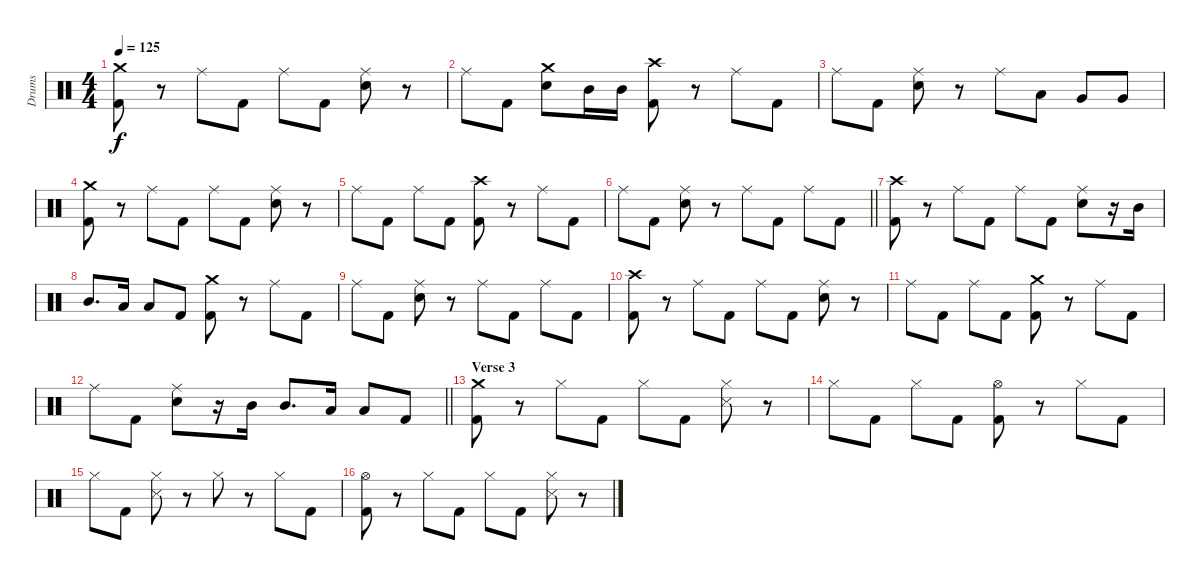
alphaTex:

\track ("Drums" "Drums") {instrument percussion}
\staff {score}
\articulation defaults
\ts (4 4)
\tempo 125
\clef neutral
\ks c
("Crash medium (hit)" "Kick (hit) 2").8{dy f volume 16} r.8 "Ride (middle)".8 "Kick (hit) 2".8 "Ride (middle)".8 "Kick (hit) 2".8 ("Ride (middle)" "Electric Snare (hit)").8 r.8 |
"Ride (middle)".8 "Kick (hit) 2".8 ("Crash medium (hit)" "Electric Snare (hit)").8 "Mid Tom (hit)".16 "Mid Tom (hit)".16 ("Crash high (hit)" "Kick (hit) 2").8 r.8 "Ride (middle)".8 "Kick (hit) 2".8 |
"Ride (middle)".8 "Kick (hit) 2".8 ("Ride (middle)" "Electric Snare (hit)").8 r.8 "Ride (middle)".8 "Low Tom (hit)".8 "Very Low Tom (hit)".8 "Very Low Tom (hit)".8 |
("Crash medium (hit)" "Kick (hit) 2").8{volume 16} r.8 "Ride (middle)".8 "Kick (hit) 2".8 "Ride (middle)".8 "Kick (hit) 2".8 ("Ride (middle)" "Electric Snare (hit)").8 r.8 |
"Ride (middle)".8 "Kick (hit) 2".8 "Ride (middle)".8 "Kick (hit) 2".8 ("Crash high (hit)" "Kick (hit) 2").8 r.8 "Ride (middle)".8 "Kick (hit) 2".8 |
\barLineRight lightlight "Ride (middle)".8 "Kick (hit) 2".8
("Ride (middle)" "Electric Snare (hit)").8 r.8 "Ride (middle)".8 "Kick (hit) 2".8 "Ride (middle)".8 "Kick (hit) 2".8 |
("Crash high (hit)" "Kick (hit) 2").8{volume 16} r.8 "Ride (middle)".8 "Kick (hit) 2".8 "Ride (middle)".8 "Kick (hit) 2".8 ("Ride (middle)" "Electric Snare (hit)").8 r.16 "Mid Tom (hit)".16 |
"Mid Tom (hit)".8{d} "Low Tom (hit)".16 "Low Tom (hit)".8 "Kick (hit) 2".8 ("Crash medium (hit)" "Kick (hit) 2").8 r.8 "Ride (middle)".8 "Kick (hit) 2".8 |
"Ride (middle)".8 "Kick (hit) 2".8 ("Ride (middle)" "Electric Snare (hit)").8 r.8 "Ride (middle)".8 "Kick (hit) 2".8 "Ride (middle)".8 "Kick (hit) 2".8 |
("Crash high (hit)" "Kick (hit) 2").8{volume 16} r.8 "Ride (middle)".8 "Kick (hit) 2".8 "Ride (middle)".8 "Kick (hit) 2".8 ("Ride (middle)" "Electric Snare (hit)").8 r.8 |
"Ride (middle)".8 "Kick (hit) 2".8 "Ride (middle)".8 "Kick (hit) 2".8 ("Crash medium (hit)" "Kick (hit) 2").8 r.8 "Ride (middle)".8 "Kick (hit) 2".8 |
\barLineRight lightlight "Ride (middle)".8 "Kick (hit) 2".8
("Ride (middle)" "Electric Snare (hit)").8 r.16 "Mid Tom (hit)".16 "Mid Tom (hit)".8{d} "Low Tom (hit)".16 "Low Tom (hit)".8 "Kick (hit) 2".8 |
\section ("" "Verse 3")
("Crash medium (hit)" "Kick (hit) 2").8{volume 16} r.8 "Hi-Hat (closed)".8 "Kick (hit) 2".8 "Hi-Hat (closed)".8 "Kick (hit) 2".8 ("Hi-Hat (closed)" "Snare (side stick) 3").8 r.8 |
"Hi-Hat (closed)".8 "Kick (hit) 2".8 "Hi-Hat (closed)".8 "Kick (hit) 2".8 ("Hi-Hat (open)" "Kick (hit) 2").8 r.8 "Hi-Hat (closed)".8 "Kick (hit) 2".8 |
"Hi-Hat (closed)".8 "Kick (hit) 2".8 ("Hi-Hat (closed)" "Snare (side stick) 3").8 r.8 "Hi-Hat (closed)".8 r.8 "Hi-Hat (closed)".8 "Kick (hit) 2".8 |
("Hi-Hat (open)" "Kick (hit) 2").8 r.8 "Hi-Hat (closed)".8 "Kick (hit) 2".8 "Hi-Hat (closed)".8 "Kick (hit) 2".8 ("Hi-Hat (closed)" "Snare (side stick) 3").8 r.8
